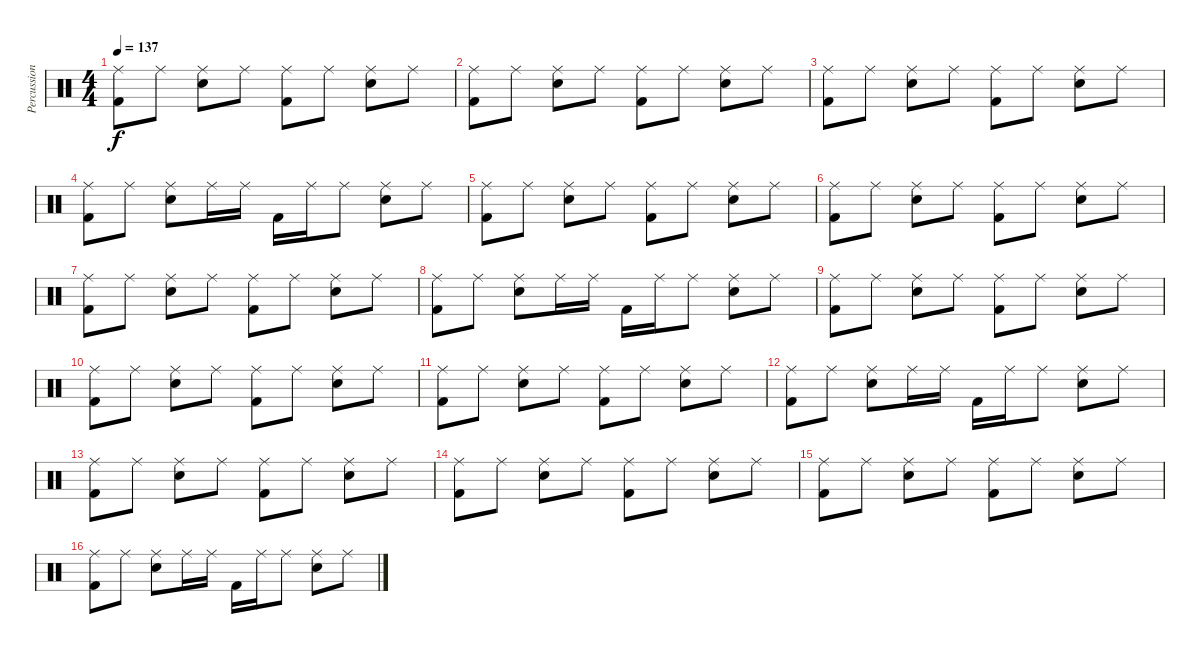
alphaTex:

\track ("Percussion" "Percussion") {instrument percussion}
\staff {score}
\articulation defaults
\ts (4 4)
\tempo 137
\clef neutral
\ks c
("Ride (middle)" "Kick (hit) 2").8{dy f} "Ride (middle)".8 ("Ride (middle)" "Snare (hit) 2").8 "Ride (middle)".8 ("Ride (middle)" "Kick (hit) 2").8 "Ride (middle)".8 ("Ride (middle)" "Snare (hit) 2").8 "Ride (middle)".8 |
("Ride (middle)" "Kick (hit) 2").8 "Ride (middle)".8 ("Ride (middle)" "Snare (hit) 2").8 "Ride (middle)".8 ("Ride (middle)" "Kick (hit) 2").8 "Ride (middle)".8 ("Ride (middle)" "Snare (hit) 2").8 "Ride (middle)".8 |
("Ride (middle)" "Kick (hit) 2").8 "Ride (middle)".8 ("Ride (middle)" "Snare (hit) 2").8 "Ride (middle)".8 ("Ride (middle)" "Kick (hit) 2").8 "Ride (middle)".8 ("Ride (middle)" "Snare (hit) 2").8 "Ride (middle)".8 |
("Ride (middle)" "Kick (hit) 2").8 "Ride (middle)".8 ("Ride (middle)" "Snare (hit) 2").8 "Ride (middle)".16 "Ride (middle)".16 "Kick (hit) 2".16 "Ride (middle)".16 "Ride (middle)".8 ("Ride (middle)" "Snare (hit) 2").8 "Ride (middle)".8 |
("Ride (middle)" "Kick (hit) 2").8 "Ride (middle)".8 ("Ride (middle)" "Snare (hit) 2").8 "Ride (middle)".8 ("Ride (middle)" "Kick (hit) 2").8 "Ride (middle)".8 ("Ride (middle)" "Snare (hit) 2").8 "Ride (middle)".8 |
("Ride (middle)" "Kick (hit) 2").8 "Ride (middle)".8 ("Ride (middle)" "Snare (hit) 2").8 "Ride (middle)".8 ("Ride (middle)" "Kick (hit) 2").8 "Ride (middle)".8 ("Ride (middle)" "Snare (hit) 2").8 "Ride (middle)".8 |
("Ride (middle)" "Kick (hit) 2").8 "Ride (middle)".8 ("Ride (middle)" "Snare (hit) 2").8 "Ride (middle)".8 ("Ride (middle)" "Kick (hit) 2").8 "Ride (middle)".8 ("Ride (middle)" "Snare (hit) 2").8 "Ride (middle)".8 |
("Ride (middle)" "Kick (hit) 2").8 "Ride (middle)".8 ("Ride (middle)" "Snare (hit) 2").8 "Ride (middle)".16 "Ride (middle)".16 "Kick (hit) 2".16 "Ride (middle)".16 "Ride (middle)".8 ("Ride (middle)" "Snare (hit) 2").8 "Ride (middle)".8 |
("Ride (middle)" "Kick (hit) 2").8 "Ride (middle)".8 ("Ride (middle)" "Snare (hit) 2").8 "Ride (middle)".8 ("Ride (middle)" "Kick (hit) 2").8 "Ride (middle)".8 ("Ride (middle)" "Snare (hit) 2").8 "Ride (middle)".8 |
("Ride (middle)" "Kick (hit) 2").8 "Ride (middle)".8 ("Ride (middle)" "Snare (hit) 2").8 "Ride (middle)".8 ("Ride (middle)" "Kick (hit) 2").8 "Ride (middle)".8 ("Ride (middle)" "Snare (hit) 2").8 "Ride (middle)".8 |
("Ride (middle)" "Kick (hit) 2").8 "Ride (middle)".8 ("Ride (middle)" "Snare (hit) 2").8 "Ride (middle)".8 ("Ride (middle)" "Kick (hit) 2").8 "Ride (middle)".8 ("Ride (middle)" "Snare (hit) 2").8 "Ride (middle)".8 |
("Ride (middle)" "Kick (hit) 2").8 "Ride (middle)".8 ("Ride (middle)" "Snare (hit) 2").8 "Ride (middle)".16 "Ride (middle)".16 "Kick (hit) 2".16 "Ride (middle)".16 "Ride (middle)".8 ("Ride (middle)" "Snare (hit) 2").8 "Ride (middle)".8 |
("Ride (middle)" "Kick (hit) 2").8 "Ride (middle)".8 ("Ride (middle)" "Snare (hit) 2").8 "Ride (middle)".8 ("Ride (middle)" "Kick (hit) 2").8 "Ride (middle)".8 ("Ride (middle)" "Snare (hit) 2").8 "Ride (middle)".8 |
("Ride (middle)" "Kick (hit) 2").8 "Ride (middle)".8 ("Ride (middle)" "Snare (hit) 2").8 "Ride (middle)".8 ("Ride (middle)" "Kick (hit) 2").8 "Ride (middle)".8 ("Ride (middle)" "Snare (hit) 2").8 "Ride (middle)".8 |
("Ride (middle)" "Kick (hit) 2").8 "Ride (middle)".8 ("Ride (middle)" "Snare (hit) 2").8 "Ride (middle)".8 ("Ride (middle)" "Kick (hit) 2").8 "Ride (middle)".8 ("Ride (middle)" "Snare (hit) 2").8 "Ride (middle)".8 |
("Ride (middle)" "Kick (hit) 2").8 "Ride (middle)".8 ("Ride (middle)" "Snare (hit) 2").8 "Ride (middle)".16 "Ride (middle)".16 "Kick (hit) 2".16 "Ride (middle)".16 "Ride (middle)".8 ("Ride (middle)" "Snare (hit) 2").8 "Ride (middle)".8
